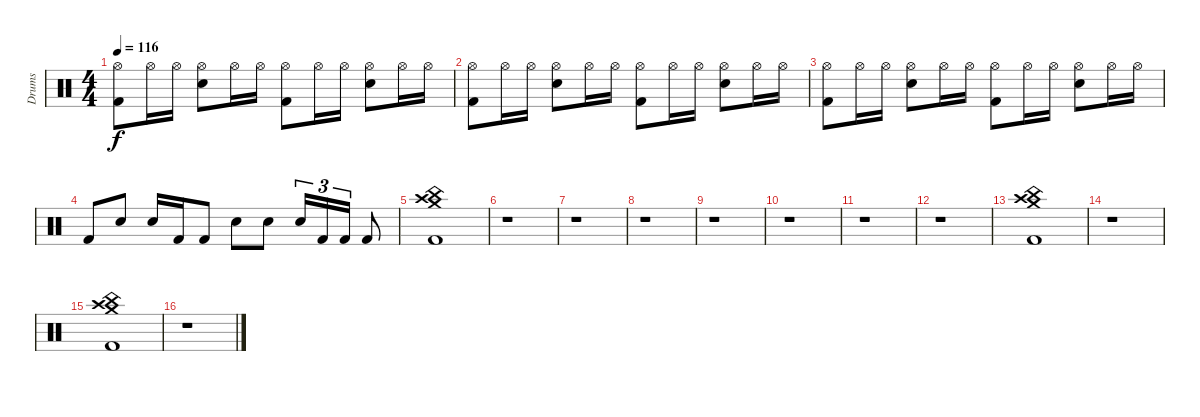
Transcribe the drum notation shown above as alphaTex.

\track ("Drums" "Drums") {instrument percussion}
\staff {score}
\articulation defaults
\ts (4 4)
\tempo 116
\clef neutral
\ks c
("Hi-Hat (open)" "Kick (hit) 2").8{dy f} "Hi-Hat (open)".16 "Hi-Hat (open)".16 ("Hi-Hat (open)" "Electric Snare (hit)").8 "Hi-Hat (open)".16 "Hi-Hat (open)".16 ("Hi-Hat (open)" "Kick (hit) 2").8 "Hi-Hat (open)".16 "Hi-Hat (open)".16 ("Hi-Hat (open)" "Electric Snare (hit)").8 "Hi-Hat (open)".16 "Hi-Hat (open)".16 |
("Hi-Hat (open)" "Kick (hit) 2").8 "Hi-Hat (open)".16 "Hi-Hat (open)".16 ("Hi-Hat (open)" "Electric Snare (hit)").8 "Hi-Hat (open)".16 "Hi-Hat (open)".16 ("Hi-Hat (open)" "Kick (hit) 2").8 "Hi-Hat (open)".16 "Hi-Hat (open)".16 ("Hi-Hat (open)" "Electric Snare (hit)").8 "Hi-Hat (open)".16 "Hi-Hat (open)".16 |
("Hi-Hat (open)" "Kick (hit) 2").8 "Hi-Hat (open)".16 "Hi-Hat (open)".16 ("Hi-Hat (open)" "Electric Snare (hit)").8 "Hi-Hat (open)".16 "Hi-Hat (open)".16 ("Hi-Hat (open)" "Kick (hit) 2").8 "Hi-Hat (open)".16 "Hi-Hat (open)".16 ("Hi-Hat (open)" "Electric Snare (hit)").8 "Hi-Hat (open)".16 "Hi-Hat (open)".16 |
"Kick (hit) 2".8 "Electric Snare (hit)".8 "Electric Snare (hit)".16 "Kick (hit) 2".16 "Kick (hit) 2".8 "Electric Snare (hit)".8 "Electric Snare (hit)".8 "Electric Snare (hit)".16{tu (3 2)} "Kick (hit) 2".16{tu (3 2)} "Kick (hit) 2".16{tu (3 2)} "Kick (hit) 2".8 |
("Crash medium (hit)" "Crash high (hit)" "China (hit)" "Kick (hit) 2").1 |
r.1 |
r.1 |
r.1 |
r.1 |
r.1 |
r.1 |
r.1 |
("Crash medium (hit)" "Crash high (hit)" "China (hit)" "Kick (hit) 2").1 |
r.1 |
("Crash medium (hit)" "Crash high (hit)" "China (hit)" "Kick (hit) 2").1 |
r.1
